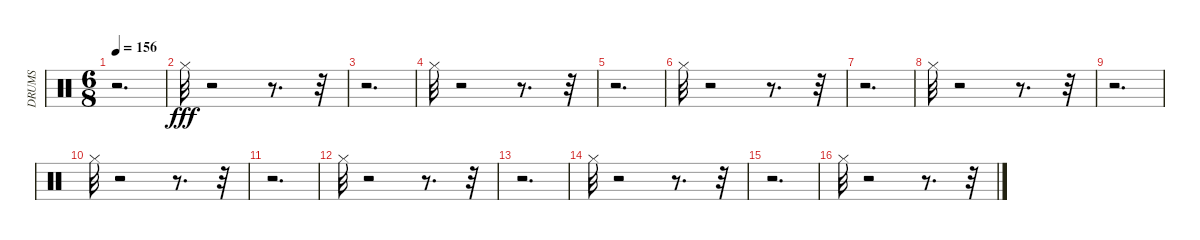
\track ("DRUMS" "DRUMS") {instrument percussion}
\staff {score}
\articulation defaults
\ts (6 8)
\tempo 156
\clef neutral
\ks c
r.2{d dy fff} |
"Hi-Hat (closed)".32 r.2 r.8{d} r.32 |
r.2{d} |
"Hi-Hat (closed)".32 r.2 r.8{d} r.32 |
r.2{d} |
"Hi-Hat (closed)".32 r.2 r.8{d} r.32 |
r.2{d} |
"Hi-Hat (closed)".32 r.2 r.8{d} r.32 |
r.2{d} |
"Hi-Hat (closed)".32 r.2 r.8{d} r.32 |
r.2{d} |
"Hi-Hat (closed)".32 r.2 r.8{d} r.32 |
r.2{d} |
"Hi-Hat (closed)".32 r.2 r.8{d} r.32 |
r.2{d} |
"Hi-Hat (closed)".32 r.2 r.8{d} r.32
